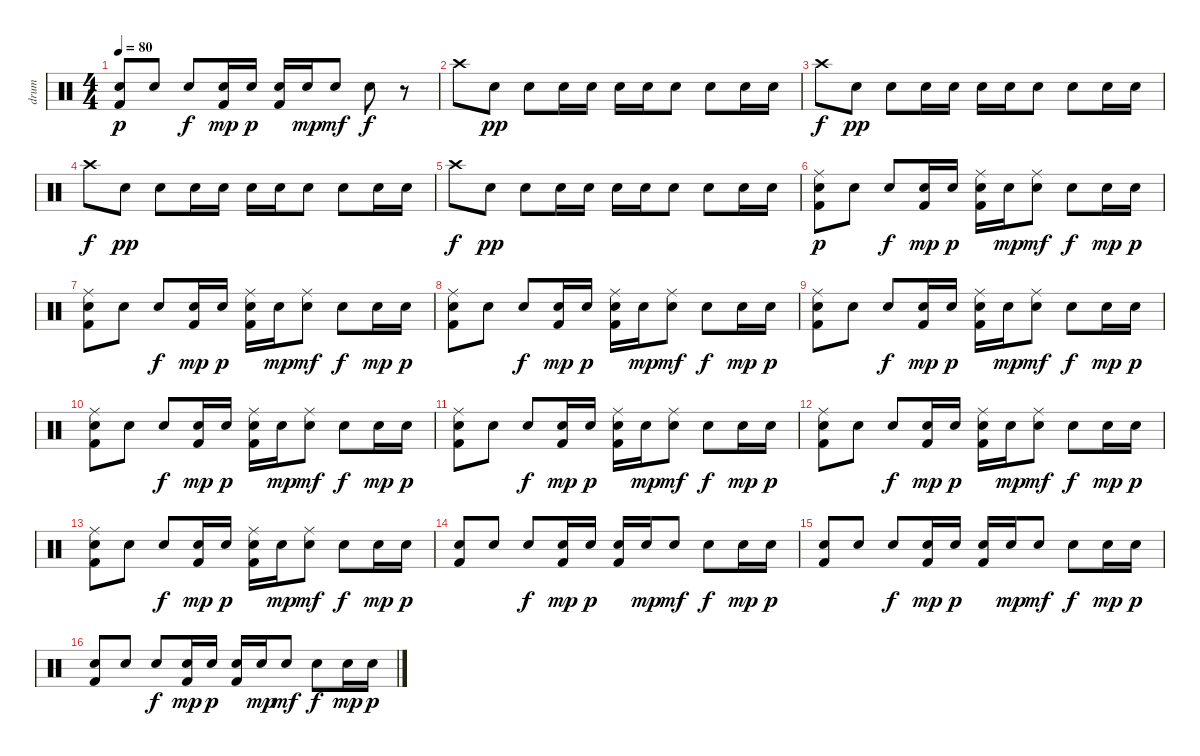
\track ("drum" "drum") {instrument percussion}
\staff {score}
\articulation defaults
\ts (4 4)
\tempo 80
\clef neutral
\ks c
("Snare (hit) 2" "Kick (hit) 2").8{dy p} "Snare (hit) 2".8 "Snare (hit) 2".8{dy f} ("Snare (hit) 2" "Kick (hit) 2").16{dy mp} "Snare (hit) 2".16{dy p} ("Snare (hit) 2" "Kick (hit) 2").16 "Snare (hit) 2".16{dy mp} "Snare (hit) 2".8{dy mf} "Snare (hit) 2".8{dy f} r.8 |
"Crash high (hit)".8 "Snare (hit) 2".8{dy pp} "Snare (hit) 2".8 "Snare (hit) 2".16 "Snare (hit) 2".16 "Snare (hit) 2".16 "Snare (hit) 2".16 "Snare (hit) 2".8 "Snare (hit) 2".8 "Snare (hit) 2".16 "Snare (hit) 2".16 |
"Crash high (hit)".8{dy f} "Snare (hit) 2".8{dy pp} "Snare (hit) 2".8 "Snare (hit) 2".16 "Snare (hit) 2".16 "Snare (hit) 2".16 "Snare (hit) 2".16 "Snare (hit) 2".8 "Snare (hit) 2".8 "Snare (hit) 2".16 "Snare (hit) 2".16 |
"Crash high (hit)".8{dy f} "Snare (hit) 2".8{dy pp} "Snare (hit) 2".8 "Snare (hit) 2".16 "Snare (hit) 2".16 "Snare (hit) 2".16 "Snare (hit) 2".16 "Snare (hit) 2".8 "Snare (hit) 2".8 "Snare (hit) 2".16 "Snare (hit) 2".16 |
"Crash high (hit)".8{dy f} "Snare (hit) 2".8{dy pp} "Snare (hit) 2".8 "Snare (hit) 2".16 "Snare (hit) 2".16 "Snare (hit) 2".16 "Snare (hit) 2".16 "Snare (hit) 2".8 "Snare (hit) 2".8 "Snare (hit) 2".16 "Snare (hit) 2".16 |
("Ride (middle)" "Snare (hit) 2" "Kick (hit) 2").8{dy p} "Snare (hit) 2".8 "Snare (hit) 2".8{dy f} ("Snare (hit) 2" "Kick (hit) 2").16{dy mp} "Snare (hit) 2".16{dy p} ("Ride (middle)" "Snare (hit) 2" "Kick (hit) 2").16 "Snare (hit) 2".16{dy mp} ("Ride (middle)" "Snare (hit) 2").8{dy mf} "Snare (hit) 2".8{dy f} "Snare (hit) 2".16{dy mp} "Snare (hit) 2".16{dy p} |
("Ride (middle)" "Snare (hit) 2" "Kick (hit) 2").8 "Snare (hit) 2".8 "Snare (hit) 2".8{dy f} ("Snare (hit) 2" "Kick (hit) 2").16{dy mp} "Snare (hit) 2".16{dy p} ("Ride (middle)" "Snare (hit) 2" "Kick (hit) 2").16 "Snare (hit) 2".16{dy mp} ("Ride (middle)" "Snare (hit) 2").8{dy mf} "Snare (hit) 2".8{dy f} "Snare (hit) 2".16{dy mp} "Snare (hit) 2".16{dy p} |
("Ride (middle)" "Snare (hit) 2" "Kick (hit) 2").8 "Snare (hit) 2".8 "Snare (hit) 2".8{dy f} ("Snare (hit) 2" "Kick (hit) 2").16{dy mp} "Snare (hit) 2".16{dy p} ("Ride (middle)" "Snare (hit) 2" "Kick (hit) 2").16 "Snare (hit) 2".16{dy mp} ("Ride (middle)" "Snare (hit) 2").8{dy mf} "Snare (hit) 2".8{dy f} "Snare (hit) 2".16{dy mp} "Snare (hit) 2".16{dy p} |
("Ride (middle)" "Snare (hit) 2" "Kick (hit) 2").8 "Snare (hit) 2".8 "Snare (hit) 2".8{dy f} ("Snare (hit) 2" "Kick (hit) 2").16{dy mp} "Snare (hit) 2".16{dy p} ("Ride (middle)" "Snare (hit) 2" "Kick (hit) 2").16 "Snare (hit) 2".16{dy mp} ("Ride (middle)" "Snare (hit) 2").8{dy mf} "Snare (hit) 2".8{dy f} "Snare (hit) 2".16{dy mp} "Snare (hit) 2".16{dy p} |
("Ride (middle)" "Snare (hit) 2" "Kick (hit) 2").8 "Snare (hit) 2".8 "Snare (hit) 2".8{dy f} ("Snare (hit) 2" "Kick (hit) 2").16{dy mp} "Snare (hit) 2".16{dy p} ("Ride (middle)" "Snare (hit) 2" "Kick (hit) 2").16 "Snare (hit) 2".16{dy mp} ("Ride (middle)" "Snare (hit) 2").8{dy mf} "Snare (hit) 2".8{dy f} "Snare (hit) 2".16{dy mp} "Snare (hit) 2".16{dy p} |
("Ride (middle)" "Snare (hit) 2" "Kick (hit) 2").8 "Snare (hit) 2".8 "Snare (hit) 2".8{dy f} ("Snare (hit) 2" "Kick (hit) 2").16{dy mp} "Snare (hit) 2".16{dy p} ("Ride (middle)" "Snare (hit) 2" "Kick (hit) 2").16 "Snare (hit) 2".16{dy mp} ("Ride (middle)" "Snare (hit) 2").8{dy mf} "Snare (hit) 2".8{dy f} "Snare (hit) 2".16{dy mp} "Snare (hit) 2".16{dy p} |
("Ride (middle)" "Snare (hit) 2" "Kick (hit) 2").8 "Snare (hit) 2".8 "Snare (hit) 2".8{dy f} ("Snare (hit) 2" "Kick (hit) 2").16{dy mp} "Snare (hit) 2".16{dy p} ("Ride (middle)" "Snare (hit) 2" "Kick (hit) 2").16 "Snare (hit) 2".16{dy mp} ("Ride (middle)" "Snare (hit) 2").8{dy mf} "Snare (hit) 2".8{dy f} "Snare (hit) 2".16{dy mp} "Snare (hit) 2".16{dy p} |
("Ride (middle)" "Snare (hit) 2" "Kick (hit) 2").8 "Snare (hit) 2".8 "Snare (hit) 2".8{dy f} ("Snare (hit) 2" "Kick (hit) 2").16{dy mp} "Snare (hit) 2".16{dy p} ("Ride (middle)" "Snare (hit) 2" "Kick (hit) 2").16 "Snare (hit) 2".16{dy mp} ("Ride (middle)" "Snare (hit) 2").8{dy mf} "Snare (hit) 2".8{dy f} "Snare (hit) 2".16{dy mp} "Snare (hit) 2".16{dy p} |
("Snare (hit) 2" "Kick (hit) 2").8 "Snare (hit) 2".8 "Snare (hit) 2".8{dy f} ("Snare (hit) 2" "Kick (hit) 2").16{dy mp} "Snare (hit) 2".16{dy p} ("Snare (hit) 2" "Kick (hit) 2").16 "Snare (hit) 2".16{dy mp} "Snare (hit) 2".8{dy mf} "Snare (hit) 2".8{dy f} "Snare (hit) 2".16{dy mp} "Snare (hit) 2".16{dy p} |
("Snare (hit) 2" "Kick (hit) 2").8 "Snare (hit) 2".8 "Snare (hit) 2".8{dy f} ("Snare (hit) 2" "Kick (hit) 2").16{dy mp} "Snare (hit) 2".16{dy p} ("Snare (hit) 2" "Kick (hit) 2").16 "Snare (hit) 2".16{dy mp} "Snare (hit) 2".8{dy mf} "Snare (hit) 2".8{dy f} "Snare (hit) 2".16{dy mp} "Snare (hit) 2".16{dy p} |
("Snare (hit) 2" "Kick (hit) 2").8 "Snare (hit) 2".8 "Snare (hit) 2".8{dy f} ("Snare (hit) 2" "Kick (hit) 2").16{dy mp} "Snare (hit) 2".16{dy p} ("Snare (hit) 2" "Kick (hit) 2").16 "Snare (hit) 2".16{dy mp} "Snare (hit) 2".8{dy mf} "Snare (hit) 2".8{dy f} "Snare (hit) 2".16{dy mp} "Snare (hit) 2".16{dy p}
